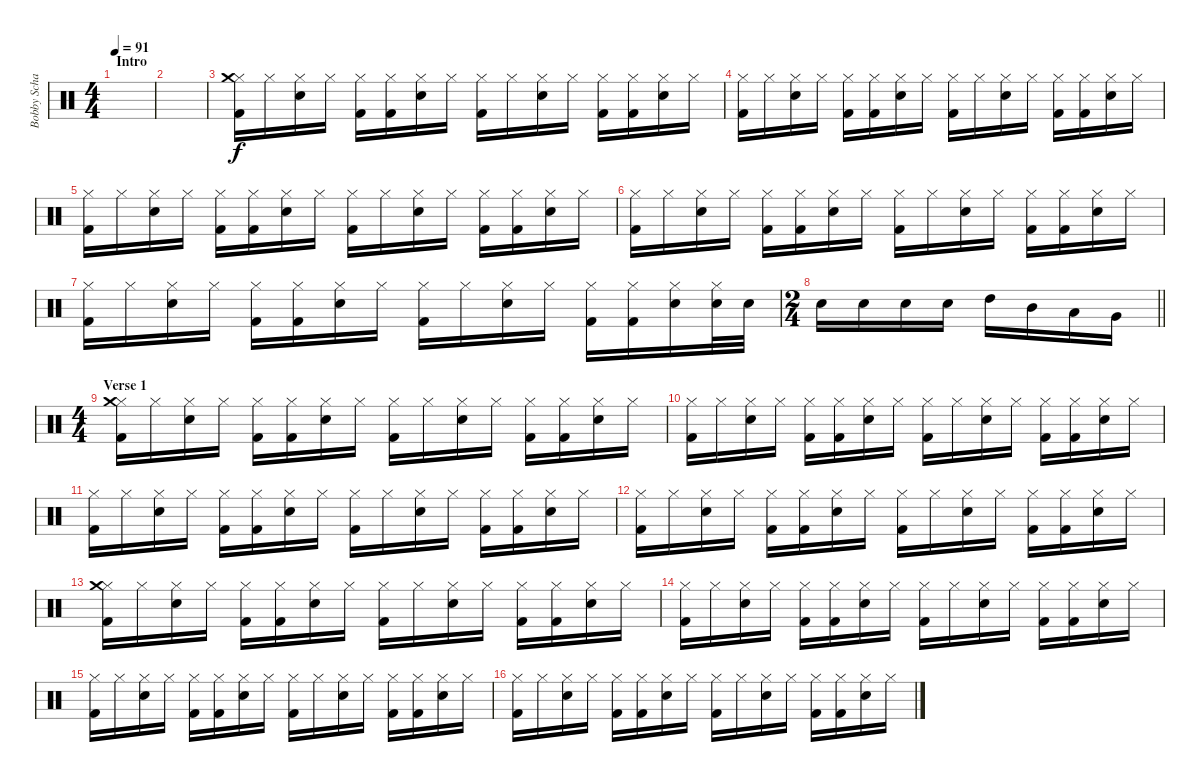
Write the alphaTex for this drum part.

\track ("Bobby Schayer " "Bobby Scha") {instrument percussion}
\staff {score}
\articulation defaults
\ts (4 4)
\section ("" "Intro")
\tempo 91
\clef neutral
\ks c
|
|
("Hi-Hat (closed)" "Crash medium (hit)" "Kick (hit) 2").16 "Hi-Hat (closed)".16 ("Hi-Hat (closed)" "Snare (hit) 2").16 "Hi-Hat (closed)".16 ("Hi-Hat (closed)" "Kick (hit) 2").16 ("Hi-Hat (closed)" "Kick (hit) 2").16 ("Hi-Hat (closed)" "Snare (hit) 2").16 "Hi-Hat (closed)".16 ("Hi-Hat (closed)" "Kick (hit) 2").16 "Hi-Hat (closed)".16 ("Hi-Hat (closed)" "Snare (hit) 2").16 "Hi-Hat (closed)".16 ("Hi-Hat (closed)" "Kick (hit) 2").16 ("Hi-Hat (closed)" "Kick (hit) 2").16 ("Hi-Hat (closed)" "Snare (hit) 2").16 "Hi-Hat (closed)".16 |
("Hi-Hat (closed)" "Kick (hit) 2").16 "Hi-Hat (closed)".16 ("Hi-Hat (closed)" "Snare (hit) 2").16 "Hi-Hat (closed)".16 ("Hi-Hat (closed)" "Kick (hit) 2").16 ("Hi-Hat (closed)" "Kick (hit) 2").16 ("Hi-Hat (closed)" "Snare (hit) 2").16 "Hi-Hat (closed)".16 ("Hi-Hat (closed)" "Kick (hit) 2").16 "Hi-Hat (closed)".16 ("Hi-Hat (closed)" "Snare (hit) 2").16 "Hi-Hat (closed)".16 ("Hi-Hat (closed)" "Kick (hit) 2").16 ("Hi-Hat (closed)" "Kick (hit) 2").16 ("Hi-Hat (closed)" "Snare (hit) 2").16 "Hi-Hat (closed)".16 |
("Hi-Hat (closed)" "Kick (hit) 2").16 "Hi-Hat (closed)".16 ("Hi-Hat (closed)" "Snare (hit) 2").16 "Hi-Hat (closed)".16 ("Hi-Hat (closed)" "Kick (hit) 2").16 ("Hi-Hat (closed)" "Kick (hit) 2").16 ("Hi-Hat (closed)" "Snare (hit) 2").16 "Hi-Hat (closed)".16 ("Hi-Hat (closed)" "Kick (hit) 2").16 "Hi-Hat (closed)".16 ("Hi-Hat (closed)" "Snare (hit) 2").16 "Hi-Hat (closed)".16 ("Hi-Hat (closed)" "Kick (hit) 2").16 ("Hi-Hat (closed)" "Kick (hit) 2").16 ("Hi-Hat (closed)" "Snare (hit) 2").16 "Hi-Hat (closed)".16 |
("Hi-Hat (closed)" "Kick (hit) 2").16 "Hi-Hat (closed)".16 ("Hi-Hat (closed)" "Snare (hit) 2").16 "Hi-Hat (closed)".16 ("Hi-Hat (closed)" "Kick (hit) 2").16 ("Hi-Hat (closed)" "Kick (hit) 2").16 ("Hi-Hat (closed)" "Snare (hit) 2").16 "Hi-Hat (closed)".16 ("Hi-Hat (closed)" "Kick (hit) 2").16 "Hi-Hat (closed)".16 ("Hi-Hat (closed)" "Snare (hit) 2").16 "Hi-Hat (closed)".16 ("Hi-Hat (closed)" "Kick (hit) 2").16 ("Hi-Hat (closed)" "Kick (hit) 2").16 ("Hi-Hat (closed)" "Snare (hit) 2").16 "Hi-Hat (closed)".16 |
("Hi-Hat (closed)" "Kick (hit) 2").16 "Hi-Hat (closed)".16 ("Hi-Hat (closed)" "Snare (hit) 2").16 "Hi-Hat (closed)".16 ("Hi-Hat (closed)" "Kick (hit) 2").16 ("Hi-Hat (closed)" "Kick (hit) 2").16 ("Hi-Hat (closed)" "Snare (hit) 2").16 "Hi-Hat (closed)".16 ("Hi-Hat (closed)" "Kick (hit) 2").16 "Hi-Hat (closed)".16 ("Hi-Hat (closed)" "Snare (hit) 2").16 "Hi-Hat (closed)".16 ("Hi-Hat (closed)" "Kick (hit) 2").16 ("Hi-Hat (closed)" "Kick (hit) 2").16 ("Hi-Hat (closed)" "Snare (hit) 2").16 ("Hi-Hat (closed)" "Snare (hit) 2").32 "Snare (hit) 2".32 |
\ts (2 4)
\barLineRight lightlight "Snare (hit) 2".16 "Snare (hit) 2".16 "Snare (hit) 2".16 "Snare (hit) 2".16 "High Tom (hit)".16 "Mid Tom (hit)".16 "Low Tom (hit)".16 "Very Low Tom (hit)".16
|
\ts (4 4)
\section ("" "Verse 1")
("Hi-Hat (closed)" "Crash medium (hit)" "Kick (hit) 2").16 "Hi-Hat (closed)".16 ("Hi-Hat (closed)" "Snare (hit) 2").16 "Hi-Hat (closed)".16 ("Hi-Hat (closed)" "Kick (hit) 2").16 ("Hi-Hat (closed)" "Kick (hit) 2").16 ("Hi-Hat (closed)" "Snare (hit) 2").16 "Hi-Hat (closed)".16 ("Hi-Hat (closed)" "Kick (hit) 2").16 "Hi-Hat (closed)".16 ("Hi-Hat (closed)" "Snare (hit) 2").16 "Hi-Hat (closed)".16 ("Hi-Hat (closed)" "Kick (hit) 2").16 ("Hi-Hat (closed)" "Kick (hit) 2").16 ("Hi-Hat (closed)" "Snare (hit) 2").16 "Hi-Hat (closed)".16 |
("Hi-Hat (closed)" "Kick (hit) 2").16 "Hi-Hat (closed)".16 ("Hi-Hat (closed)" "Snare (hit) 2").16 "Hi-Hat (closed)".16 ("Hi-Hat (closed)" "Kick (hit) 2").16 ("Hi-Hat (closed)" "Kick (hit) 2").16 ("Hi-Hat (closed)" "Snare (hit) 2").16 "Hi-Hat (closed)".16 ("Hi-Hat (closed)" "Kick (hit) 2").16 "Hi-Hat (closed)".16 ("Hi-Hat (closed)" "Snare (hit) 2").16 "Hi-Hat (closed)".16 ("Hi-Hat (closed)" "Kick (hit) 2").16 ("Hi-Hat (closed)" "Kick (hit) 2").16 ("Hi-Hat (closed)" "Snare (hit) 2").16 "Hi-Hat (closed)".16 |
("Hi-Hat (closed)" "Kick (hit) 2").16 "Hi-Hat (closed)".16 ("Hi-Hat (closed)" "Snare (hit) 2").16 "Hi-Hat (closed)".16 ("Hi-Hat (closed)" "Kick (hit) 2").16 ("Hi-Hat (closed)" "Kick (hit) 2").16 ("Hi-Hat (closed)" "Snare (hit) 2").16 "Hi-Hat (closed)".16 ("Hi-Hat (closed)" "Kick (hit) 2").16 "Hi-Hat (closed)".16 ("Hi-Hat (closed)" "Snare (hit) 2").16 "Hi-Hat (closed)".16 ("Hi-Hat (closed)" "Kick (hit) 2").16 ("Hi-Hat (closed)" "Kick (hit) 2").16 ("Hi-Hat (closed)" "Snare (hit) 2").16 "Hi-Hat (closed)".16 |
("Hi-Hat (closed)" "Kick (hit) 2").16 "Hi-Hat (closed)".16 ("Hi-Hat (closed)" "Snare (hit) 2").16 "Hi-Hat (closed)".16 ("Hi-Hat (closed)" "Kick (hit) 2").16 ("Hi-Hat (closed)" "Kick (hit) 2").16 ("Hi-Hat (closed)" "Snare (hit) 2").16 "Hi-Hat (closed)".16 ("Hi-Hat (closed)" "Kick (hit) 2").16 "Hi-Hat (closed)".16 ("Hi-Hat (closed)" "Snare (hit) 2").16 "Hi-Hat (closed)".16 ("Hi-Hat (closed)" "Kick (hit) 2").16 ("Hi-Hat (closed)" "Kick (hit) 2").16 ("Hi-Hat (closed)" "Snare (hit) 2").16 "Hi-Hat (closed)".16 |
("Hi-Hat (closed)" "Crash medium (hit)" "Kick (hit) 2").16 "Hi-Hat (closed)".16 ("Hi-Hat (closed)" "Snare (hit) 2").16 "Hi-Hat (closed)".16 ("Hi-Hat (closed)" "Kick (hit) 2").16 ("Hi-Hat (closed)" "Kick (hit) 2").16 ("Hi-Hat (closed)" "Snare (hit) 2").16 "Hi-Hat (closed)".16 ("Hi-Hat (closed)" "Kick (hit) 2").16 "Hi-Hat (closed)".16 ("Hi-Hat (closed)" "Snare (hit) 2").16 "Hi-Hat (closed)".16 ("Hi-Hat (closed)" "Kick (hit) 2").16 ("Hi-Hat (closed)" "Kick (hit) 2").16 ("Hi-Hat (closed)" "Snare (hit) 2").16 "Hi-Hat (closed)".16 |
("Hi-Hat (closed)" "Kick (hit) 2").16 "Hi-Hat (closed)".16 ("Hi-Hat (closed)" "Snare (hit) 2").16 "Hi-Hat (closed)".16 ("Hi-Hat (closed)" "Kick (hit) 2").16 ("Hi-Hat (closed)" "Kick (hit) 2").16 ("Hi-Hat (closed)" "Snare (hit) 2").16 "Hi-Hat (closed)".16 ("Hi-Hat (closed)" "Kick (hit) 2").16 "Hi-Hat (closed)".16 ("Hi-Hat (closed)" "Snare (hit) 2").16 "Hi-Hat (closed)".16 ("Hi-Hat (closed)" "Kick (hit) 2").16 ("Hi-Hat (closed)" "Kick (hit) 2").16 ("Hi-Hat (closed)" "Snare (hit) 2").16 "Hi-Hat (closed)".16 |
("Hi-Hat (closed)" "Kick (hit) 2").16 "Hi-Hat (closed)".16 ("Hi-Hat (closed)" "Snare (hit) 2").16 "Hi-Hat (closed)".16 ("Hi-Hat (closed)" "Kick (hit) 2").16 ("Hi-Hat (closed)" "Kick (hit) 2").16 ("Hi-Hat (closed)" "Snare (hit) 2").16 "Hi-Hat (closed)".16 ("Hi-Hat (closed)" "Kick (hit) 2").16 "Hi-Hat (closed)".16 ("Hi-Hat (closed)" "Snare (hit) 2").16 "Hi-Hat (closed)".16 ("Hi-Hat (closed)" "Kick (hit) 2").16 ("Hi-Hat (closed)" "Kick (hit) 2").16 ("Hi-Hat (closed)" "Snare (hit) 2").16 "Hi-Hat (closed)".16 |
("Hi-Hat (closed)" "Kick (hit) 2").16 "Hi-Hat (closed)".16 ("Hi-Hat (closed)" "Snare (hit) 2").16 "Hi-Hat (closed)".16 ("Hi-Hat (closed)" "Kick (hit) 2").16 ("Hi-Hat (closed)" "Kick (hit) 2").16 ("Hi-Hat (closed)" "Snare (hit) 2").16 "Hi-Hat (closed)".16 ("Hi-Hat (closed)" "Kick (hit) 2").16 "Hi-Hat (closed)".16 ("Hi-Hat (closed)" "Snare (hit) 2").16 "Hi-Hat (closed)".16 ("Hi-Hat (closed)" "Kick (hit) 2").16 ("Hi-Hat (closed)" "Kick (hit) 2").16 ("Hi-Hat (closed)" "Snare (hit) 2").16 "Hi-Hat (closed)".16
